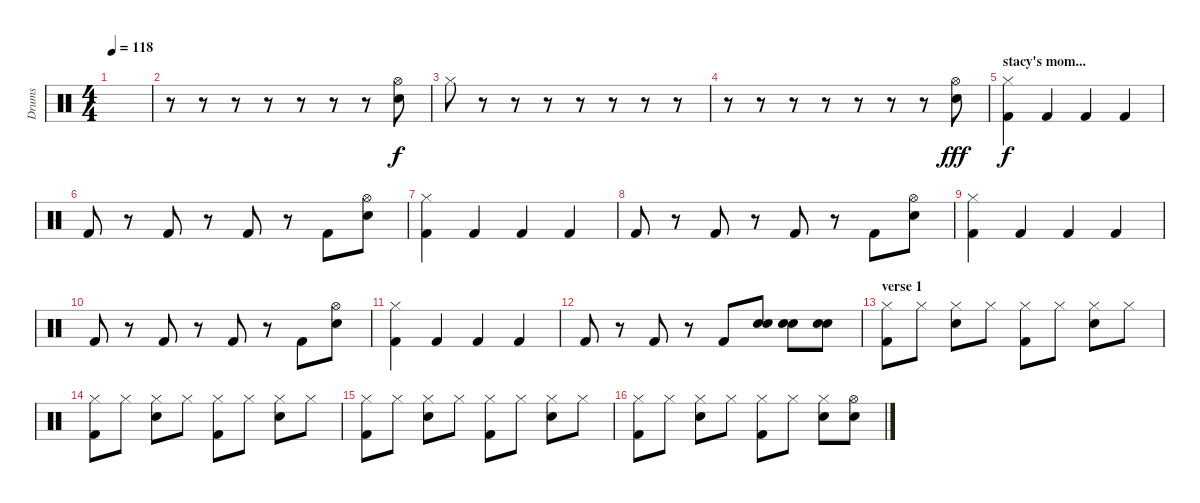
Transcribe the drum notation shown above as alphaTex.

\track ("Drums" "Drums") {instrument percussion}
\staff {score}
\articulation defaults
\ts (4 4)
\tempo 118
\clef neutral
\ks c
|
r.8 r.8 r.8 r.8 r.8 r.8 r.8 ("Hi-Hat (open)" "Snare (hit) 2").8 |
"Hi-Hat (closed)".8{dy f} r.8 r.8 r.8 r.8 r.8 r.8 r.8 |
r.8 r.8 r.8 r.8 r.8 r.8 r.8 ("Hi-Hat (open)" "Snare (hit) 2").8{dy fff} |
\section ("" "stacy's mom...")
("Hi-Hat (closed)" "Kick (hit) 2").4{dy f} "Kick (hit) 2".4 "Kick (hit) 2".4 "Kick (hit) 2".4 |
"Kick (hit) 2".8 r.8 "Kick (hit) 2".8 r.8 "Kick (hit) 2".8 r.8 "Kick (hit) 2".8 ("Hi-Hat (open)" "Snare (hit) 2").8 |
("Hi-Hat (closed)" "Kick (hit) 2").4 "Kick (hit) 2".4 "Kick (hit) 2".4 "Kick (hit) 2".4 |
"Kick (hit) 2".8 r.8 "Kick (hit) 2".8 r.8 "Kick (hit) 2".8 r.8 "Kick (hit) 2".8 ("Hi-Hat (open)" "Snare (hit) 2").8 |
("Hi-Hat (closed)" "Kick (hit) 2").4 "Kick (hit) 2".4 "Kick (hit) 2".4 "Kick (hit) 2".4 |
"Kick (hit) 2".8 r.8 "Kick (hit) 2".8 r.8 "Kick (hit) 2".8 r.8 "Kick (hit) 2".8 ("Hi-Hat (open)" "Snare (hit) 2").8 |
("Hi-Hat (closed)" "Kick (hit) 2").4 "Kick (hit) 2".4 "Kick (hit) 2".4 "Kick (hit) 2".4 |
"Kick (hit) 2".8 r.8 "Kick (hit) 2".8 r.8 "Kick (hit) 2".8 ("Hand Clap (hit)" "Electric Snare (hit)").8 ("Hand Clap (hit)" "Electric Snare (hit)").8 ("Hand Clap (hit)" "Electric Snare (hit)").8 |
\section ("" "verse 1")
("Hi-Hat (closed)" "Kick (hit) 2").8 "Hi-Hat (closed)".8 ("Hi-Hat (closed)" "Electric Snare (hit)").8 "Hi-Hat (closed)".8 ("Hi-Hat (closed)" "Kick (hit) 2").8 "Hi-Hat (closed)".8 ("Hi-Hat (closed)" "Electric Snare (hit)").8 "Hi-Hat (closed)".8 |
("Hi-Hat (closed)" "Kick (hit) 2").8 "Hi-Hat (closed)".8 ("Hi-Hat (closed)" "Electric Snare (hit)").8 "Hi-Hat (closed)".8 ("Hi-Hat (closed)" "Kick (hit) 2").8 "Hi-Hat (closed)".8 ("Hi-Hat (closed)" "Electric Snare (hit)").8 "Hi-Hat (closed)".8 |
("Hi-Hat (closed)" "Kick (hit) 2").8 "Hi-Hat (closed)".8 ("Hi-Hat (closed)" "Electric Snare (hit)").8 "Hi-Hat (closed)".8 ("Hi-Hat (closed)" "Kick (hit) 2").8 "Hi-Hat (closed)".8 ("Hi-Hat (closed)" "Electric Snare (hit)").8 "Hi-Hat (closed)".8 |
("Hi-Hat (closed)" "Kick (hit) 2").8 "Hi-Hat (closed)".8 ("Hi-Hat (closed)" "Electric Snare (hit)").8 "Hi-Hat (closed)".8 ("Hi-Hat (closed)" "Kick (hit) 2").8 "Hi-Hat (closed)".8 ("Hi-Hat (closed)" "Electric Snare (hit)").8 ("Hi-Hat (open)" "Electric Snare (hit)").8
